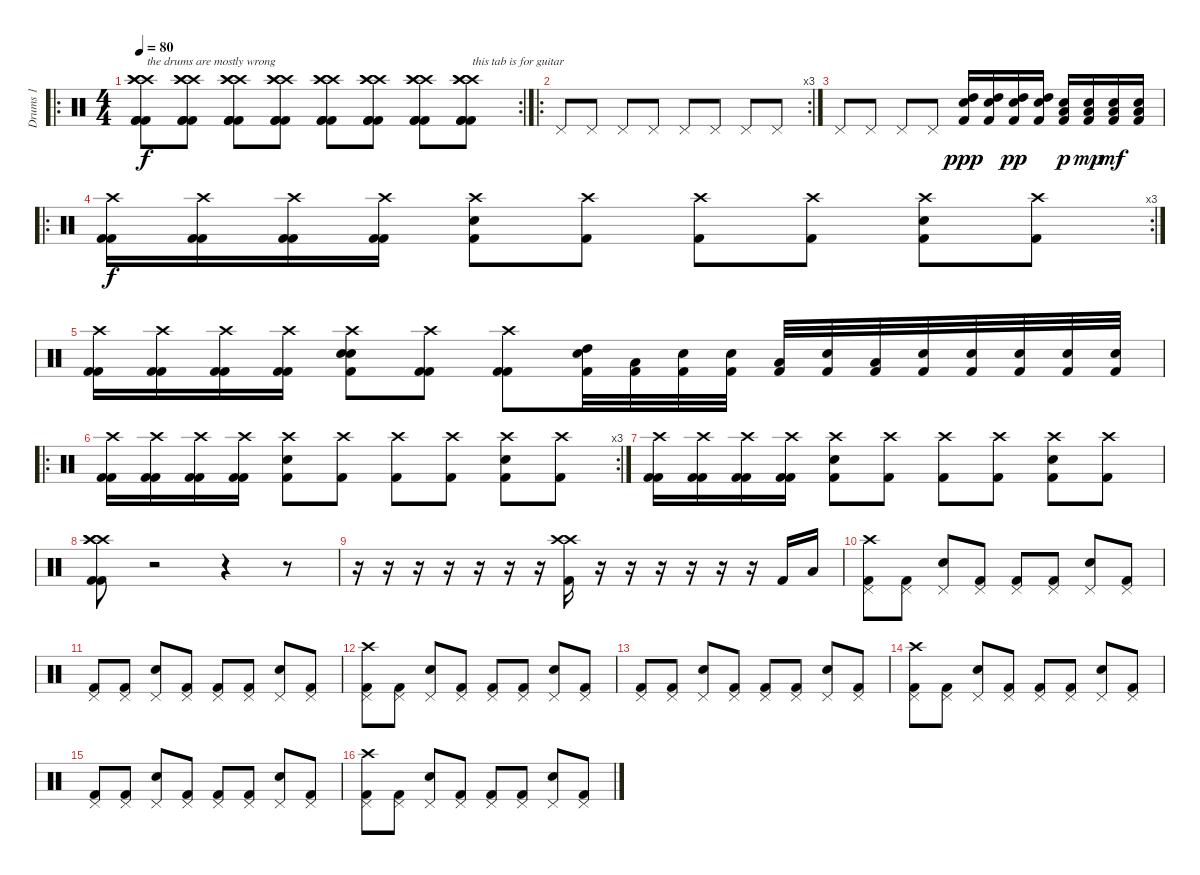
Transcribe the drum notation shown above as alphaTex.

\track ("Drums 1" "Drums 1") {instrument percussion}
\staff {score}
\articulation defaults
\ro
\rc 2
\ts (4 4)
\tempo 80
\clef neutral
\ks c
("Crash high (hit)" "Crash high (hit)" "Crash high (hit)" "Kick (hit) 2" "Kick (hit) 2" "Kick (hit) 2").8{txt "the drums are mostly wrong" dy f} ("Crash high (hit)" "Crash high (hit)" "Crash high (hit)" "Kick (hit) 2" "Kick (hit) 2" "Kick (hit) 2").8 ("Crash high (hit)" "Crash high (hit)" "Crash high (hit)" "Kick (hit) 2" "Kick (hit) 2" "Kick (hit) 2").8 ("Crash high (hit)" "Crash high (hit)" "Crash high (hit)" "Kick (hit) 2" "Kick (hit) 2" "Kick (hit) 2").8 ("Crash high (hit)" "Crash high (hit)" "Crash high (hit)" "Kick (hit) 2" "Kick (hit) 2" "Kick (hit) 2").8 ("Crash high (hit)" "Crash high (hit)" "Crash high (hit)" "Kick (hit) 2" "Kick (hit) 2" "Kick (hit) 2").8 ("Crash high (hit)" "Crash high (hit)" "Crash high (hit)" "Kick (hit) 2" "Kick (hit) 2" "Kick (hit) 2").8 ("Crash high (hit)" "Crash high (hit)" "Crash high (hit)" "Kick (hit) 2" "Kick (hit) 2" "Kick (hit) 2").8{txt "this tab is for guitar"} |
\ro
\rc 3 "Pedal Hi-Hat (hit)".8 "Pedal Hi-Hat (hit)".8 "Pedal Hi-Hat (hit)".8 "Pedal Hi-Hat (hit)".8 "Pedal Hi-Hat (hit)".8 "Pedal Hi-Hat (hit)".8 "Pedal Hi-Hat (hit)".8 "Pedal Hi-Hat (hit)".8
|
"Pedal Hi-Hat (hit)".8 "Pedal Hi-Hat (hit)".8 "Pedal Hi-Hat (hit)".8 "Pedal Hi-Hat (hit)".8 ("High Tom (hit)" "Electric Snare (hit)" "Kick (hit) 2").16{dy ppp} ("High Tom (hit)" "Electric Snare (hit)" "Kick (hit) 2").16 ("High Tom (hit)" "Electric Snare (hit)" "Kick (hit) 2").16{dy pp} ("High Tom (hit)" "Electric Snare (hit)" "Kick (hit) 2").16 ("Low Tom (hit)" "Electric Snare (hit)" "Kick (hit) 2").16{dy p} ("Low Tom (hit)" "Electric Snare (hit)" "Kick (hit) 2").16{dy mp} ("Low Tom (hit)" "Electric Snare (hit)" "Kick (hit) 2").16{dy mf} ("Low Tom (hit)" "Electric Snare (hit)" "Kick (hit) 2").16 |
\ro
\rc 3
("Crash high (hit)" "Kick (hit) 2" "Kick (hit) 2").16{dy f} ("Crash high (hit)" "Kick (hit) 2" "Kick (hit) 2").16 ("Crash high (hit)" "Kick (hit) 2" "Kick (hit) 2").16 ("Crash high (hit)" "Kick (hit) 2" "Kick (hit) 2").16 ("Crash high (hit)" "Kick (hit) 2" "Electric Snare (hit)").8 ("Crash high (hit)" "Kick (hit) 2").8 ("Crash high (hit)" "Kick (hit) 2").8 ("Crash high (hit)" "Kick (hit) 2").8 ("Crash high (hit)" "Kick (hit) 2" "Electric Snare (hit)").8 ("Crash high (hit)" "Kick (hit) 2").8 |
("Crash high (hit)" "Kick (hit) 2" "Kick (hit) 2").16 ("Crash high (hit)" "Kick (hit) 2" "Kick (hit) 2").16 ("Crash high (hit)" "Kick (hit) 2" "Kick (hit) 2").16 ("Crash high (hit)" "Kick (hit) 2" "Kick (hit) 2").16 ("Electric Snare (hit)" "Crash high (hit)" "Electric Snare (hit)" "Kick (hit) 2").8 ("Crash high (hit)" "Kick (hit) 2" "Kick (hit) 2").8 ("Crash high (hit)" "Kick (hit) 2" "Kick (hit) 2").8 ("High Tom (hit)" "Kick (hit) 2" "Electric Snare (hit)").32 ("Low Tom (hit)" "Kick (hit) 2").32 ("Electric Snare (hit)" "Kick (hit) 2").32 ("Electric Snare (hit)" "Kick (hit) 2").32 ("Low Tom (hit)" "Kick (hit) 2").32 ("Electric Snare (hit)" "Kick (hit) 2").32 ("Low Tom (hit)" "Kick (hit) 2").32 ("Electric Snare (hit)" "Kick (hit) 2").32 ("Electric Snare (hit)" "Kick (hit) 2").32 ("Electric Snare (hit)" "Kick (hit) 2").32 ("Electric Snare (hit)" "Kick (hit) 2").32 ("Electric Snare (hit)" "Kick (hit) 2").32 |
\ro
\rc 3
("Crash high (hit)" "Kick (hit) 2" "Kick (hit) 2").16 ("Crash high (hit)" "Kick (hit) 2" "Kick (hit) 2").16 ("Crash high (hit)" "Kick (hit) 2" "Kick (hit) 2").16 ("Crash high (hit)" "Kick (hit) 2" "Kick (hit) 2").16 ("Crash high (hit)" "Kick (hit) 2" "Electric Snare (hit)").8 ("Crash high (hit)" "Kick (hit) 2").8 ("Crash high (hit)" "Kick (hit) 2").8 ("Crash high (hit)" "Kick (hit) 2").8 ("Crash high (hit)" "Kick (hit) 2" "Electric Snare (hit)").8 ("Crash high (hit)" "Kick (hit) 2").8 |
("Crash high (hit)" "Kick (hit) 2" "Kick (hit) 2").16 ("Crash high (hit)" "Kick (hit) 2" "Kick (hit) 2").16 ("Crash high (hit)" "Kick (hit) 2" "Kick (hit) 2").16 ("Crash high (hit)" "Kick (hit) 2" "Kick (hit) 2").16 ("Crash high (hit)" "Kick (hit) 2" "Electric Snare (hit)").8 ("Crash high (hit)" "Kick (hit) 2").8 ("Crash high (hit)" "Kick (hit) 2").8 ("Crash high (hit)" "Kick (hit) 2").8 ("Crash high (hit)" "Kick (hit) 2" "Electric Snare (hit)").8 ("Crash high (hit)" "Kick (hit) 2").8 |
("Crash high (hit)" "Crash high (hit)" "Crash high (hit)" "Kick (hit) 2" "Kick (hit) 2").8 r.2 r.4 r.8 |
r.16 r.16 r.16 r.16 r.16 r.16 r.16 ("Crash high (hit)" "Crash high (hit)" "Kick (hit) 2").16 r.16 r.16 r.16 r.16 r.16 r.16 "Kick (hit) 2".16 "Low Tom (hit)".16 |
("Pedal Hi-Hat (hit)" "Crash high (hit)" "Kick (hit) 2").8 ("Pedal Hi-Hat (hit)" "Kick (hit) 2").8 ("Pedal Hi-Hat (hit)" "Electric Snare (hit)").8 ("Pedal Hi-Hat (hit)" "Kick (hit) 2").8 ("Pedal Hi-Hat (hit)" "Kick (hit) 2").8 ("Pedal Hi-Hat (hit)" "Kick (hit) 2").8 ("Pedal Hi-Hat (hit)" "Electric Snare (hit)").8 ("Pedal Hi-Hat (hit)" "Kick (hit) 2").8 |
("Pedal Hi-Hat (hit)" "Kick (hit) 2").8 ("Pedal Hi-Hat (hit)" "Kick (hit) 2").8 ("Pedal Hi-Hat (hit)" "Electric Snare (hit)").8 ("Pedal Hi-Hat (hit)" "Kick (hit) 2").8 ("Pedal Hi-Hat (hit)" "Kick (hit) 2").8 ("Pedal Hi-Hat (hit)" "Kick (hit) 2").8 ("Pedal Hi-Hat (hit)" "Electric Snare (hit)").8 ("Pedal Hi-Hat (hit)" "Kick (hit) 2").8 |
("Pedal Hi-Hat (hit)" "Crash high (hit)" "Kick (hit) 2").8 ("Pedal Hi-Hat (hit)" "Kick (hit) 2").8 ("Pedal Hi-Hat (hit)" "Electric Snare (hit)").8 ("Pedal Hi-Hat (hit)" "Kick (hit) 2").8 ("Pedal Hi-Hat (hit)" "Kick (hit) 2").8 ("Pedal Hi-Hat (hit)" "Kick (hit) 2").8 ("Pedal Hi-Hat (hit)" "Electric Snare (hit)").8 ("Pedal Hi-Hat (hit)" "Kick (hit) 2").8 |
("Pedal Hi-Hat (hit)" "Kick (hit) 2").8 ("Pedal Hi-Hat (hit)" "Kick (hit) 2").8 ("Pedal Hi-Hat (hit)" "Electric Snare (hit)").8 ("Pedal Hi-Hat (hit)" "Kick (hit) 2").8 ("Pedal Hi-Hat (hit)" "Kick (hit) 2").8 ("Pedal Hi-Hat (hit)" "Kick (hit) 2").8 ("Pedal Hi-Hat (hit)" "Electric Snare (hit)").8 ("Pedal Hi-Hat (hit)" "Kick (hit) 2").8 |
("Pedal Hi-Hat (hit)" "Crash high (hit)" "Kick (hit) 2").8 ("Pedal Hi-Hat (hit)" "Kick (hit) 2").8 ("Pedal Hi-Hat (hit)" "Electric Snare (hit)").8 ("Pedal Hi-Hat (hit)" "Kick (hit) 2").8 ("Pedal Hi-Hat (hit)" "Kick (hit) 2").8 ("Pedal Hi-Hat (hit)" "Kick (hit) 2").8 ("Pedal Hi-Hat (hit)" "Electric Snare (hit)").8 ("Pedal Hi-Hat (hit)" "Kick (hit) 2").8 |
("Pedal Hi-Hat (hit)" "Kick (hit) 2").8 ("Pedal Hi-Hat (hit)" "Kick (hit) 2").8 ("Pedal Hi-Hat (hit)" "Electric Snare (hit)").8 ("Pedal Hi-Hat (hit)" "Kick (hit) 2").8 ("Pedal Hi-Hat (hit)" "Kick (hit) 2").8 ("Pedal Hi-Hat (hit)" "Kick (hit) 2").8 ("Pedal Hi-Hat (hit)" "Electric Snare (hit)").8 ("Pedal Hi-Hat (hit)" "Kick (hit) 2").8 |
("Pedal Hi-Hat (hit)" "Crash high (hit)" "Kick (hit) 2").8 ("Pedal Hi-Hat (hit)" "Kick (hit) 2").8 ("Pedal Hi-Hat (hit)" "Electric Snare (hit)").8 ("Pedal Hi-Hat (hit)" "Kick (hit) 2").8 ("Pedal Hi-Hat (hit)" "Kick (hit) 2").8 ("Pedal Hi-Hat (hit)" "Kick (hit) 2").8 ("Pedal Hi-Hat (hit)" "Electric Snare (hit)").8 ("Pedal Hi-Hat (hit)" "Kick (hit) 2").8
